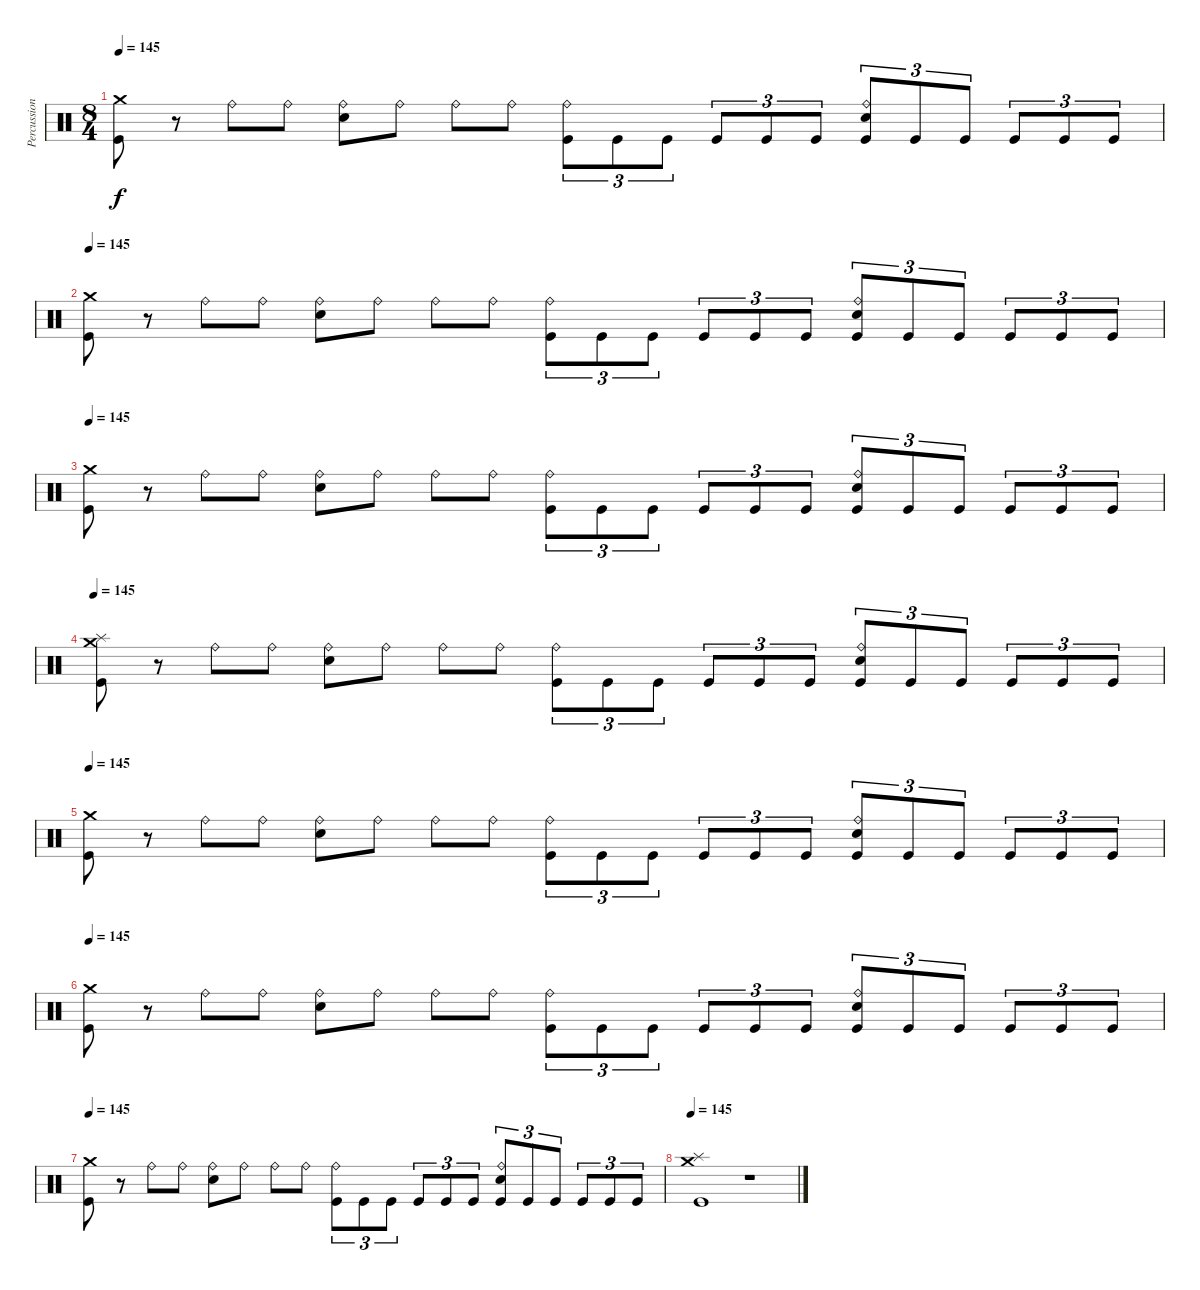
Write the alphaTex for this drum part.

\track ("Percussion" "Percussion") {instrument percussion}
\staff {score}
\articulation defaults
\ts (8 4)
\tempo 145
\clef neutral
\ks c
("Crash medium (hit)" "Kick (hit)").8{dy f} r.8 "Ride (bell)".8 "Ride (bell)".8 ("Ride (bell)" "Electric Snare (hit)").8 "Ride (bell)".8 "Ride (bell)".8 "Ride (bell)".8 ("Ride (bell)" "Kick (hit)").8{tu (3 2)} "Kick (hit)".8{tu (3 2)} "Kick (hit)".8{tu (3 2)} "Kick (hit)".8{tu (3 2)} "Kick (hit)".8{tu (3 2)} "Kick (hit)".8{tu (3 2)} ("Ride (bell)" "Electric Snare (hit)" "Kick (hit)").8{tu (3 2)} "Kick (hit)".8{tu (3 2)} "Kick (hit)".8{tu (3 2)} "Kick (hit)".8{tu (3 2)} "Kick (hit)".8{tu (3 2)} "Kick (hit)".8{tu (3 2)} |
\tempo 145
("Crash medium (hit)" "Kick (hit)").8 r.8 "Ride (bell)".8 "Ride (bell)".8 ("Ride (bell)" "Electric Snare (hit)").8 "Ride (bell)".8 "Ride (bell)".8 "Ride (bell)".8 ("Ride (bell)" "Kick (hit)").8{tu (3 2)} "Kick (hit)".8{tu (3 2)} "Kick (hit)".8{tu (3 2)} "Kick (hit)".8{tu (3 2)} "Kick (hit)".8{tu (3 2)} "Kick (hit)".8{tu (3 2)} ("Ride (bell)" "Electric Snare (hit)" "Kick (hit)").8{tu (3 2)} "Kick (hit)".8{tu (3 2)} "Kick (hit)".8{tu (3 2)} "Kick (hit)".8{tu (3 2)} "Kick (hit)".8{tu (3 2)} "Kick (hit)".8{tu (3 2)} |
\tempo 145
("Crash medium (hit)" "Kick (hit)").8 r.8 "Ride (bell)".8 "Ride (bell)".8 ("Ride (bell)" "Electric Snare (hit)").8 "Ride (bell)".8 "Ride (bell)".8 "Ride (bell)".8 ("Ride (bell)" "Kick (hit)").8{tu (3 2)} "Kick (hit)".8{tu (3 2)} "Kick (hit)".8{tu (3 2)} "Kick (hit)".8{tu (3 2)} "Kick (hit)".8{tu (3 2)} "Kick (hit)".8{tu (3 2)} ("Ride (bell)" "Electric Snare (hit)" "Kick (hit)").8{tu (3 2)} "Kick (hit)".8{tu (3 2)} "Kick (hit)".8{tu (3 2)} "Kick (hit)".8{tu (3 2)} "Kick (hit)".8{tu (3 2)} "Kick (hit)".8{tu (3 2)} |
\tempo 145
("Crash medium (hit)" "Splash (hit)" "Kick (hit)").8 r.8 "Ride (bell)".8 "Ride (bell)".8 ("Ride (bell)" "Electric Snare (hit)").8 "Ride (bell)".8 "Ride (bell)".8 "Ride (bell)".8 ("Ride (bell)" "Kick (hit)").8{tu (3 2)} "Kick (hit)".8{tu (3 2)} "Kick (hit)".8{tu (3 2)} "Kick (hit)".8{tu (3 2)} "Kick (hit)".8{tu (3 2)} "Kick (hit)".8{tu (3 2)} ("Ride (bell)" "Electric Snare (hit)" "Kick (hit)").8{tu (3 2)} "Kick (hit)".8{tu (3 2)} "Kick (hit)".8{tu (3 2)} "Kick (hit)".8{tu (3 2)} "Kick (hit)".8{tu (3 2)} "Kick (hit)".8{tu (3 2)} |
\tempo 145
("Crash medium (hit)" "Kick (hit)").8 r.8 "Ride (bell)".8 "Ride (bell)".8 ("Ride (bell)" "Electric Snare (hit)").8 "Ride (bell)".8 "Ride (bell)".8 "Ride (bell)".8 ("Ride (bell)" "Kick (hit)").8{tu (3 2)} "Kick (hit)".8{tu (3 2)} "Kick (hit)".8{tu (3 2)} "Kick (hit)".8{tu (3 2)} "Kick (hit)".8{tu (3 2)} "Kick (hit)".8{tu (3 2)} ("Ride (bell)" "Electric Snare (hit)" "Kick (hit)").8{tu (3 2)} "Kick (hit)".8{tu (3 2)} "Kick (hit)".8{tu (3 2)} "Kick (hit)".8{tu (3 2)} "Kick (hit)".8{tu (3 2)} "Kick (hit)".8{tu (3 2)} |
\tempo 145
("Crash medium (hit)" "Kick (hit)").8 r.8 "Ride (bell)".8 "Ride (bell)".8 ("Ride (bell)" "Electric Snare (hit)").8 "Ride (bell)".8 "Ride (bell)".8 "Ride (bell)".8 ("Ride (bell)" "Kick (hit)").8{tu (3 2)} "Kick (hit)".8{tu (3 2)} "Kick (hit)".8{tu (3 2)} "Kick (hit)".8{tu (3 2)} "Kick (hit)".8{tu (3 2)} "Kick (hit)".8{tu (3 2)} ("Ride (bell)" "Electric Snare (hit)" "Kick (hit)").8{tu (3 2)} "Kick (hit)".8{tu (3 2)} "Kick (hit)".8{tu (3 2)} "Kick (hit)".8{tu (3 2)} "Kick (hit)".8{tu (3 2)} "Kick (hit)".8{tu (3 2)} |
\tempo 145
("Crash medium (hit)" "Kick (hit)").8 r.8 "Ride (bell)".8 "Ride (bell)".8 ("Ride (bell)" "Electric Snare (hit)").8 "Ride (bell)".8 "Ride (bell)".8 "Ride (bell)".8 ("Ride (bell)" "Kick (hit)").8{tu (3 2)} "Kick (hit)".8{tu (3 2)} "Kick (hit)".8{tu (3 2)} "Kick (hit)".8{tu (3 2)} "Kick (hit)".8{tu (3 2)} "Kick (hit)".8{tu (3 2)} ("Ride (bell)" "Electric Snare (hit)" "Kick (hit)").8{tu (3 2)} "Kick (hit)".8{tu (3 2)} "Kick (hit)".8{tu (3 2)} "Kick (hit)".8{tu (3 2)} "Kick (hit)".8{tu (3 2)} "Kick (hit)".8{tu (3 2)} |
\tempo 145
("Crash medium (hit)" "Splash (hit)" "Kick (hit)").1 r.1
